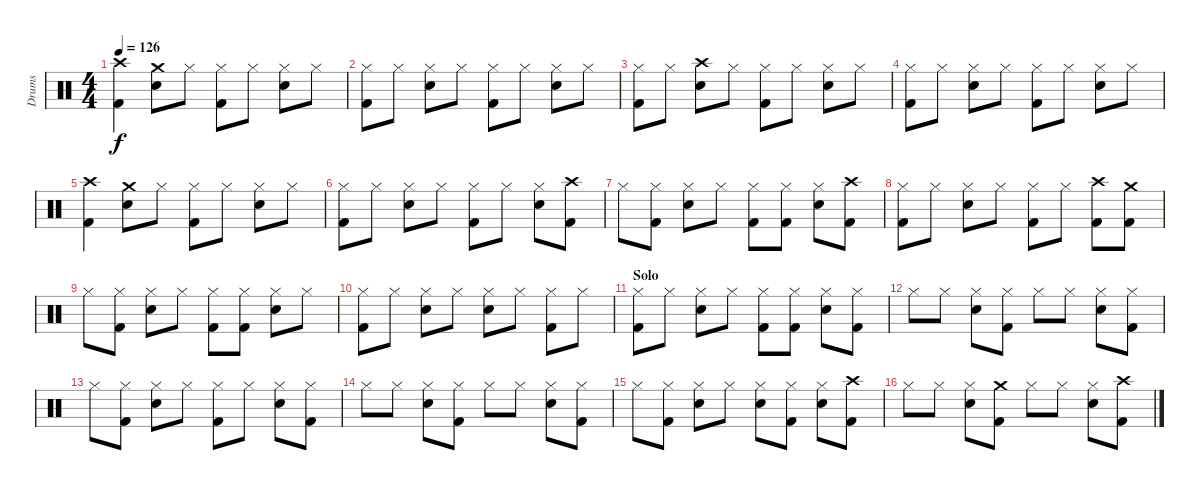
\track ("Drums" "Drums") {instrument percussion}
\staff {score}
\articulation defaults
\ts (4 4)
\tempo 126
\clef neutral
\ks c
("Crash high (hit)" "Kick (hit) 2").4{dy f} ("Crash medium (hit)" "Snare (hit) 2").8 "Hi-Hat (closed)".8 ("Hi-Hat (closed)" "Kick (hit) 2").8 "Hi-Hat (closed)".8 ("Hi-Hat (closed)" "Snare (hit) 2").8 "Hi-Hat (closed)".8 |
("Hi-Hat (closed)" "Kick (hit) 2").8 "Hi-Hat (closed)".8 ("Hi-Hat (closed)" "Snare (hit) 2").8 "Hi-Hat (closed)".8 ("Hi-Hat (closed)" "Kick (hit) 2").8 "Hi-Hat (closed)".8 ("Hi-Hat (closed)" "Snare (hit) 2").8 "Hi-Hat (closed)".8 |
("Hi-Hat (closed)" "Kick (hit) 2").8 "Hi-Hat (closed)".8 ("Crash high (hit)" "Snare (hit) 2").8 "Hi-Hat (closed)".8 ("Hi-Hat (closed)" "Kick (hit) 2").8 "Hi-Hat (closed)".8 ("Hi-Hat (closed)" "Snare (hit) 2").8 "Hi-Hat (closed)".8 |
("Hi-Hat (closed)" "Kick (hit) 2").8 "Hi-Hat (closed)".8 ("Hi-Hat (closed)" "Snare (hit) 2").8 "Hi-Hat (closed)".8 ("Hi-Hat (closed)" "Kick (hit) 2").8 "Hi-Hat (closed)".8 ("Hi-Hat (closed)" "Snare (hit) 2").8 "Hi-Hat (closed)".8 |
("Crash high (hit)" "Kick (hit) 2").4 ("Crash medium (hit)" "Snare (hit) 2").8 "Hi-Hat (closed)".8 ("Hi-Hat (closed)" "Kick (hit) 2").8 "Hi-Hat (closed)".8 ("Hi-Hat (closed)" "Snare (hit) 2").8 "Hi-Hat (closed)".8 |
("Hi-Hat (closed)" "Kick (hit) 2").8 "Hi-Hat (closed)".8 ("Hi-Hat (closed)" "Snare (hit) 2").8 "Hi-Hat (closed)".8 ("Hi-Hat (closed)" "Kick (hit) 2").8 "Hi-Hat (closed)".8 ("Hi-Hat (closed)" "Snare (hit) 2").8 ("Crash high (hit)" "Kick (hit) 2").8 |
"Hi-Hat (closed)".8 ("Hi-Hat (closed)" "Kick (hit) 2").8 ("Hi-Hat (closed)" "Snare (hit) 2").8 "Hi-Hat (closed)".8 ("Hi-Hat (closed)" "Kick (hit) 2").8 ("Hi-Hat (closed)" "Kick (hit) 2").8 ("Hi-Hat (closed)" "Snare (hit) 2").8 ("Crash high (hit)" "Kick (hit) 2").8 |
("Hi-Hat (closed)" "Kick (hit) 2").8 "Hi-Hat (closed)".8 ("Hi-Hat (closed)" "Snare (hit) 2").8 "Hi-Hat (closed)".8 ("Hi-Hat (closed)" "Kick (hit) 2").8 "Hi-Hat (closed)".8 ("Crash high (hit)" "Kick (hit) 2").8 ("Crash medium (hit)" "Kick (hit) 2").8 |
"Hi-Hat (closed)".8 ("Hi-Hat (closed)" "Kick (hit) 2").8 ("Hi-Hat (closed)" "Snare (hit) 2").8 "Hi-Hat (closed)".8 ("Hi-Hat (closed)" "Kick (hit) 2").8 ("Hi-Hat (closed)" "Kick (hit) 2").8 ("Hi-Hat (closed)" "Snare (hit) 2").8 "Hi-Hat (closed)".8 |
("Hi-Hat (closed)" "Kick (hit) 2").8 "Hi-Hat (closed)".8 ("Hi-Hat (closed)" "Snare (hit) 2").8 "Hi-Hat (closed)".8 ("Hi-Hat (closed)" "Snare (hit) 2").8 "Hi-Hat (closed)".8 ("Hi-Hat (closed)" "Kick (hit) 2").8 "Hi-Hat (closed)".8 |
\section ("" "Solo")
("Hi-Hat (closed)" "Kick (hit) 2").8 "Hi-Hat (closed)".8 ("Hi-Hat (closed)" "Snare (hit) 2").8 "Hi-Hat (closed)".8 ("Hi-Hat (closed)" "Kick (hit) 2").8 ("Hi-Hat (closed)" "Kick (hit) 2").8 ("Hi-Hat (closed)" "Snare (hit) 2").8 ("Hi-Hat (closed)" "Kick (hit) 2").8 |
"Hi-Hat (closed)".8 "Hi-Hat (closed)".8 ("Hi-Hat (closed)" "Snare (hit) 2").8 ("Hi-Hat (closed)" "Kick (hit) 2").8 "Hi-Hat (closed)".8 "Hi-Hat (closed)".8 ("Hi-Hat (closed)" "Snare (hit) 2").8 ("Hi-Hat (closed)" "Kick (hit) 2").8 |
"Hi-Hat (closed)".8 ("Hi-Hat (closed)" "Kick (hit) 2").8 ("Hi-Hat (closed)" "Snare (hit) 2").8 "Hi-Hat (closed)".8 ("Hi-Hat (closed)" "Kick (hit) 2").8 "Hi-Hat (closed)".8 ("Hi-Hat (closed)" "Snare (hit) 2").8 ("Hi-Hat (closed)" "Kick (hit) 2").8 |
"Hi-Hat (closed)".8 "Hi-Hat (closed)".8 ("Hi-Hat (closed)" "Snare (hit) 2").8 ("Hi-Hat (closed)" "Kick (hit) 2").8 "Hi-Hat (closed)".8 "Hi-Hat (closed)".8 ("Hi-Hat (closed)" "Snare (hit) 2").8 ("Hi-Hat (closed)" "Kick (hit) 2").8 |
"Hi-Hat (closed)".8 ("Hi-Hat (closed)" "Kick (hit) 2").8 ("Hi-Hat (closed)" "Snare (hit) 2").8 "Hi-Hat (closed)".8 ("Hi-Hat (closed)" "Snare (hit) 2").8 ("Hi-Hat (closed)" "Kick (hit) 2").8 ("Hi-Hat (closed)" "Snare (hit) 2").8 ("Crash high (hit)" "Kick (hit) 2").8 |
"Hi-Hat (closed)".8 "Hi-Hat (closed)".8 ("Hi-Hat (closed)" "Snare (hit) 2").8 ("Crash medium (hit)" "Kick (hit) 2").8 "Hi-Hat (closed)".8 "Hi-Hat (closed)".8 ("Hi-Hat (closed)" "Snare (hit) 2").8 ("Crash high (hit)" "Kick (hit) 2").8
